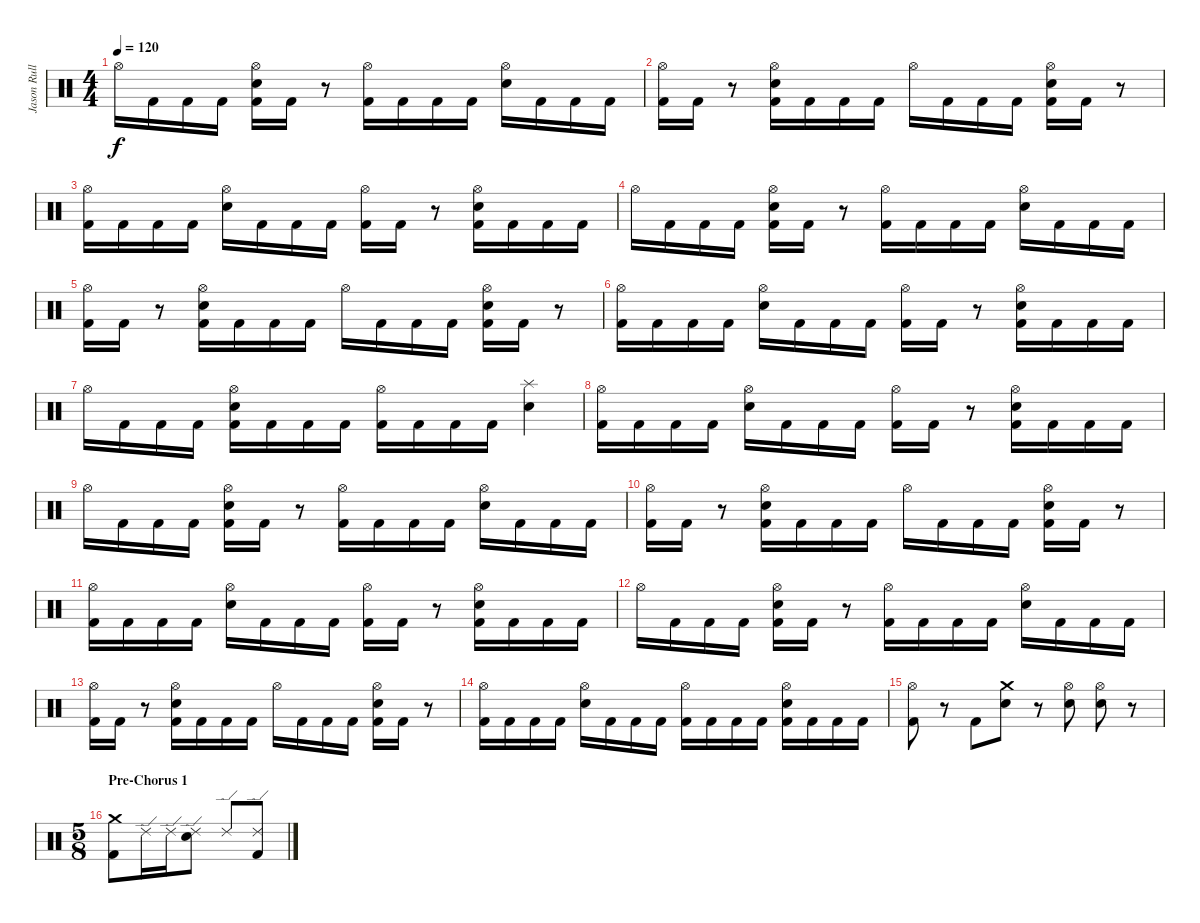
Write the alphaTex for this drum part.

\track ("Jason Rullo" "Jason Rull") {instrument percussion}
\staff {score}
\articulation defaults
\ts (4 4)
\tempo 120
\clef neutral
\ks c "Hi-Hat (open)".16{dy f} "Kick (hit) 2".16 "Kick (hit) 2".16 "Kick (hit) 2".16
("Kick (hit) 2" "Electric Snare (hit)" "Hi-Hat (open)").16 "Kick (hit) 2".16 r.8 ("Kick (hit) 2" "Hi-Hat (open)").16 "Kick (hit) 2".16 "Kick (hit) 2".16 "Kick (hit) 2".16 ("Electric Snare (hit)" "Hi-Hat (open)").16 "Kick (hit) 2".16 "Kick (hit) 2".16 "Kick (hit) 2".16 |
("Kick (hit) 2" "Hi-Hat (open)").16 "Kick (hit) 2".16 r.8 ("Electric Snare (hit)" "Kick (hit) 2" "Hi-Hat (open)").16 "Kick (hit) 2".16 "Kick (hit) 2".16 "Kick (hit) 2".16 "Hi-Hat (open)".16 "Kick (hit) 2".16 "Kick (hit) 2".16 "Kick (hit) 2".16 ("Kick (hit) 2" "Electric Snare (hit)" "Hi-Hat (open)").16 "Kick (hit) 2".16 r.8 |
("Kick (hit) 2" "Hi-Hat (open)").16 "Kick (hit) 2".16 "Kick (hit) 2".16 "Kick (hit) 2".16 ("Electric Snare (hit)" "Hi-Hat (open)").16 "Kick (hit) 2".16 "Kick (hit) 2".16 "Kick (hit) 2".16 ("Kick (hit) 2" "Hi-Hat (open)").16 "Kick (hit) 2".16 r.8 ("Electric Snare (hit)" "Kick (hit) 2" "Hi-Hat (open)").16 "Kick (hit) 2".16 "Kick (hit) 2".16 "Kick (hit) 2".16 |
"Hi-Hat (open)".16 "Kick (hit) 2".16 "Kick (hit) 2".16 "Kick (hit) 2".16 ("Kick (hit) 2" "Electric Snare (hit)" "Hi-Hat (open)").16 "Kick (hit) 2".16 r.8 ("Kick (hit) 2" "Hi-Hat (open)").16 "Kick (hit) 2".16 "Kick (hit) 2".16 "Kick (hit) 2".16 ("Electric Snare (hit)" "Hi-Hat (open)").16 "Kick (hit) 2".16 "Kick (hit) 2".16 "Kick (hit) 2".16 |
("Kick (hit) 2" "Hi-Hat (open)").16 "Kick (hit) 2".16 r.8 ("Electric Snare (hit)" "Kick (hit) 2" "Hi-Hat (open)").16 "Kick (hit) 2".16 "Kick (hit) 2".16 "Kick (hit) 2".16 "Hi-Hat (open)".16 "Kick (hit) 2".16 "Kick (hit) 2".16 "Kick (hit) 2".16 ("Kick (hit) 2" "Electric Snare (hit)" "Hi-Hat (open)").16 "Kick (hit) 2".16 r.8 |
("Kick (hit) 2" "Hi-Hat (open)").16 "Kick (hit) 2".16 "Kick (hit) 2".16 "Kick (hit) 2".16 ("Electric Snare (hit)" "Hi-Hat (open)").16 "Kick (hit) 2".16 "Kick (hit) 2".16 "Kick (hit) 2".16 ("Kick (hit) 2" "Hi-Hat (open)").16 "Kick (hit) 2".16 r.8 ("Electric Snare (hit)" "Kick (hit) 2" "Hi-Hat (open)").16 "Kick (hit) 2".16 "Kick (hit) 2".16 "Kick (hit) 2".16 |
"Hi-Hat (open)".16 "Kick (hit) 2".16 "Kick (hit) 2".16 "Kick (hit) 2".16 ("Kick (hit) 2" "Electric Snare (hit)" "Hi-Hat (open)").16 "Kick (hit) 2".16 "Kick (hit) 2".16 "Kick (hit) 2".16 ("Hi-Hat (open)" "Kick (hit) 2").16 "Kick (hit) 2".16 "Kick (hit) 2".16 "Kick (hit) 2".16 ("Splash (hit)" "Electric Snare (hit)").4 |
("Kick (hit) 2" "Hi-Hat (open)").16 "Kick (hit) 2".16 "Kick (hit) 2".16 "Kick (hit) 2".16 ("Electric Snare (hit)" "Hi-Hat (open)").16 "Kick (hit) 2".16 "Kick (hit) 2".16 "Kick (hit) 2".16 ("Kick (hit) 2" "Hi-Hat (open)").16 "Kick (hit) 2".16 r.8 ("Electric Snare (hit)" "Kick (hit) 2" "Hi-Hat (open)").16 "Kick (hit) 2".16 "Kick (hit) 2".16 "Kick (hit) 2".16 |
"Hi-Hat (open)".16 "Kick (hit) 2".16 "Kick (hit) 2".16 "Kick (hit) 2".16 ("Kick (hit) 2" "Electric Snare (hit)" "Hi-Hat (open)").16 "Kick (hit) 2".16 r.8 ("Kick (hit) 2" "Hi-Hat (open)").16 "Kick (hit) 2".16 "Kick (hit) 2".16 "Kick (hit) 2".16 ("Electric Snare (hit)" "Hi-Hat (open)").16 "Kick (hit) 2".16 "Kick (hit) 2".16 "Kick (hit) 2".16 |
("Kick (hit) 2" "Hi-Hat (open)").16 "Kick (hit) 2".16 r.8 ("Electric Snare (hit)" "Kick (hit) 2" "Hi-Hat (open)").16 "Kick (hit) 2".16 "Kick (hit) 2".16 "Kick (hit) 2".16 "Hi-Hat (open)".16 "Kick (hit) 2".16 "Kick (hit) 2".16 "Kick (hit) 2".16 ("Kick (hit) 2" "Electric Snare (hit)" "Hi-Hat (open)").16 "Kick (hit) 2".16 r.8 |
("Kick (hit) 2" "Hi-Hat (open)").16 "Kick (hit) 2".16 "Kick (hit) 2".16 "Kick (hit) 2".16 ("Electric Snare (hit)" "Hi-Hat (open)").16 "Kick (hit) 2".16 "Kick (hit) 2".16 "Kick (hit) 2".16 ("Kick (hit) 2" "Hi-Hat (open)").16 "Kick (hit) 2".16 r.8 ("Electric Snare (hit)" "Kick (hit) 2" "Hi-Hat (open)").16 "Kick (hit) 2".16 "Kick (hit) 2".16 "Kick (hit) 2".16 |
"Hi-Hat (open)".16 "Kick (hit) 2".16 "Kick (hit) 2".16 "Kick (hit) 2".16 ("Kick (hit) 2" "Electric Snare (hit)" "Hi-Hat (open)").16 "Kick (hit) 2".16 r.8 ("Kick (hit) 2" "Hi-Hat (open)").16 "Kick (hit) 2".16 "Kick (hit) 2".16 "Kick (hit) 2".16 ("Electric Snare (hit)" "Hi-Hat (open)").16 "Kick (hit) 2".16 "Kick (hit) 2".16 "Kick (hit) 2".16 |
("Kick (hit) 2" "Hi-Hat (open)").16 "Kick (hit) 2".16 r.8 ("Electric Snare (hit)" "Kick (hit) 2" "Hi-Hat (open)").16 "Kick (hit) 2".16 "Kick (hit) 2".16 "Kick (hit) 2".16 "Hi-Hat (open)".16 "Kick (hit) 2".16 "Kick (hit) 2".16 "Kick (hit) 2".16 ("Kick (hit) 2" "Electric Snare (hit)" "Hi-Hat (open)").16 "Kick (hit) 2".16 r.8 |
("Kick (hit) 2" "Hi-Hat (open)").16 "Kick (hit) 2".16 "Kick (hit) 2".16 "Kick (hit) 2".16 ("Electric Snare (hit)" "Hi-Hat (open)").16 "Kick (hit) 2".16 "Kick (hit) 2".16 "Kick (hit) 2".16 ("Kick (hit) 2" "Hi-Hat (open)").16 "Kick (hit) 2".16 "Kick (hit) 2".16 "Kick (hit) 2".16 ("Electric Snare (hit)" "Kick (hit) 2" "Hi-Hat (open)").16 "Kick (hit) 2".16 "Kick (hit) 2".16 "Kick (hit) 2".16 |
("Hi-Hat (open)" "Kick (hit) 2").8 r.8 "Kick (hit) 2".8 ("Crash medium (hit)" "Electric Snare (hit)").8 r.8 ("Hi-Hat (open)" "Electric Snare (hit)").8 ("Hi-Hat (open)" "Electric Snare (hit)").8 r.8 |
\ts (5 8)
\section ("" "Pre-Chorus 1")
("Kick (hit) 2" "Crash medium (hit)").8 "Ride (edge) 2".16 "Ride (edge) 2".16 ("Electric Snare (hit)" "Ride (edge) 2").8 "Ride (edge) 2".8 ("Kick (hit) 2" "Ride (edge) 2").8
